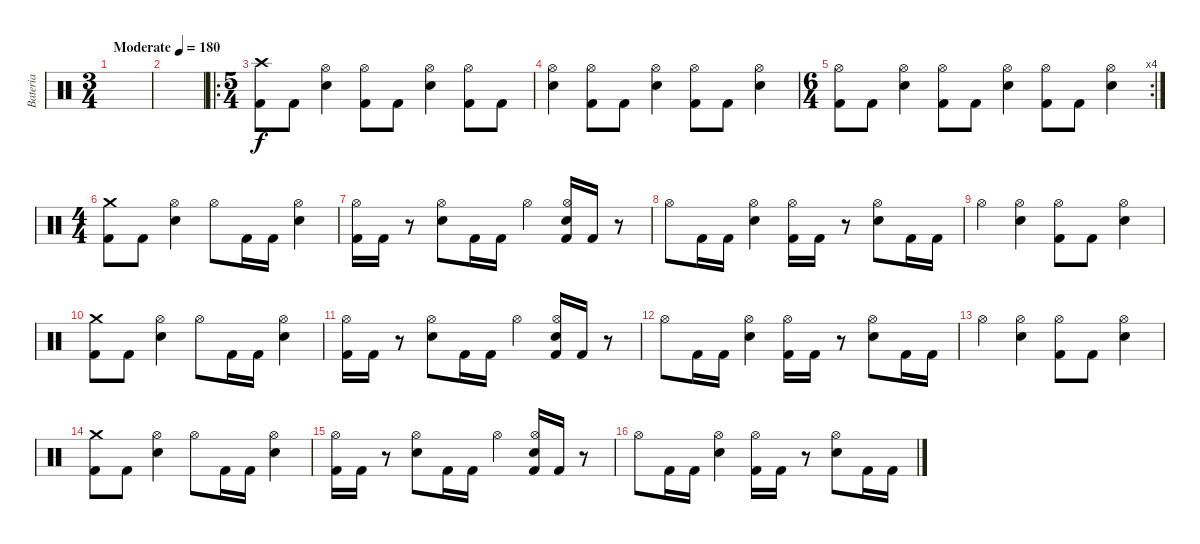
\track ("Bateria" "Bateria") {instrument percussion}
\staff {score}
\articulation defaults
\ts (3 4)
\tempo (180 "Moderate")
\clef neutral
\ks c
|
|
\ro
\ts (5 4)
("Crash high (hit)" "Kick (hit) 2").8 "Kick (hit) 2".8 ("Hi-Hat (open)" "Electric Snare (hit)").4 ("Hi-Hat (open)" "Kick (hit) 2").8 "Kick (hit) 2".8 ("Hi-Hat (open)" "Electric Snare (hit)").4 ("Hi-Hat (open)" "Kick (hit) 2").8 "Kick (hit) 2".8 |
("Hi-Hat (open)" "Electric Snare (hit)").4 ("Hi-Hat (open)" "Kick (hit) 2").8 "Kick (hit) 2".8 ("Hi-Hat (open)" "Electric Snare (hit)").4 ("Hi-Hat (open)" "Kick (hit) 2").8 "Kick (hit) 2".8 ("Hi-Hat (open)" "Electric Snare (hit)").4 |
\rc 4
\ts (6 4)
("Hi-Hat (open)" "Kick (hit) 2").8 "Kick (hit) 2".8 ("Hi-Hat (open)" "Electric Snare (hit)").4 ("Hi-Hat (open)" "Kick (hit) 2").8 "Kick (hit) 2".8 ("Hi-Hat (open)" "Electric Snare (hit)").4 ("Hi-Hat (open)" "Kick (hit) 2").8 "Kick (hit) 2".8 ("Hi-Hat (open)" "Electric Snare (hit)").4 |
\ts (4 4)
("Crash medium (hit)" "Kick (hit) 2").8 "Kick (hit) 2".8 ("Hi-Hat (open)" "Electric Snare (hit)").4 "Hi-Hat (open)".8 "Kick (hit) 2".16 "Kick (hit) 2".16 ("Hi-Hat (open)" "Electric Snare (hit)").4 |
("Hi-Hat (open)" "Kick (hit) 2").16 "Kick (hit) 2".16 r.8 ("Hi-Hat (open)" "Electric Snare (hit)").8 "Kick (hit) 2".16 "Kick (hit) 2".16 "Hi-Hat (open)".4 ("Hi-Hat (open)" "Electric Snare (hit)" "Kick (hit) 2").16 "Kick (hit) 2".16 r.8 |
"Hi-Hat (open)".8 "Kick (hit) 2".16 "Kick (hit) 2".16 ("Hi-Hat (open)" "Electric Snare (hit)").4 ("Hi-Hat (open)" "Kick (hit) 2").16 "Kick (hit) 2".16 r.8 ("Hi-Hat (open)" "Electric Snare (hit)").8 "Kick (hit) 2".16 "Kick (hit) 2".16 |
"Hi-Hat (open)".4 ("Hi-Hat (open)" "Electric Snare (hit)").4 ("Hi-Hat (open)" "Kick (hit) 2").8 "Kick (hit) 2".8 ("Hi-Hat (open)" "Electric Snare (hit)").4 |
("Crash medium (hit)" "Kick (hit) 2").8 "Kick (hit) 2".8 ("Hi-Hat (open)" "Electric Snare (hit)").4 "Hi-Hat (open)".8 "Kick (hit) 2".16 "Kick (hit) 2".16 ("Hi-Hat (open)" "Electric Snare (hit)").4 |
("Hi-Hat (open)" "Kick (hit) 2").16 "Kick (hit) 2".16 r.8 ("Hi-Hat (open)" "Electric Snare (hit)").8 "Kick (hit) 2".16 "Kick (hit) 2".16 "Hi-Hat (open)".4 ("Hi-Hat (open)" "Electric Snare (hit)" "Kick (hit) 2").16 "Kick (hit) 2".16 r.8 |
"Hi-Hat (open)".8 "Kick (hit) 2".16 "Kick (hit) 2".16 ("Hi-Hat (open)" "Electric Snare (hit)").4 ("Hi-Hat (open)" "Kick (hit) 2").16 "Kick (hit) 2".16 r.8 ("Hi-Hat (open)" "Electric Snare (hit)").8 "Kick (hit) 2".16 "Kick (hit) 2".16 |
"Hi-Hat (open)".4 ("Hi-Hat (open)" "Electric Snare (hit)").4 ("Hi-Hat (open)" "Kick (hit) 2").8 "Kick (hit) 2".8 ("Hi-Hat (open)" "Electric Snare (hit)").4 |
("Crash medium (hit)" "Kick (hit) 2").8 "Kick (hit) 2".8 ("Hi-Hat (open)" "Electric Snare (hit)").4 "Hi-Hat (open)".8 "Kick (hit) 2".16 "Kick (hit) 2".16 ("Hi-Hat (open)" "Electric Snare (hit)").4 |
("Hi-Hat (open)" "Kick (hit) 2").16 "Kick (hit) 2".16 r.8 ("Hi-Hat (open)" "Electric Snare (hit)").8 "Kick (hit) 2".16 "Kick (hit) 2".16 "Hi-Hat (open)".4 ("Hi-Hat (open)" "Electric Snare (hit)" "Kick (hit) 2").16 "Kick (hit) 2".16 r.8 |
"Hi-Hat (open)".8 "Kick (hit) 2".16 "Kick (hit) 2".16 ("Hi-Hat (open)" "Electric Snare (hit)").4 ("Hi-Hat (open)" "Kick (hit) 2").16 "Kick (hit) 2".16 r.8 ("Hi-Hat (open)" "Electric Snare (hit)").8 "Kick (hit) 2".16 "Kick (hit) 2".16
